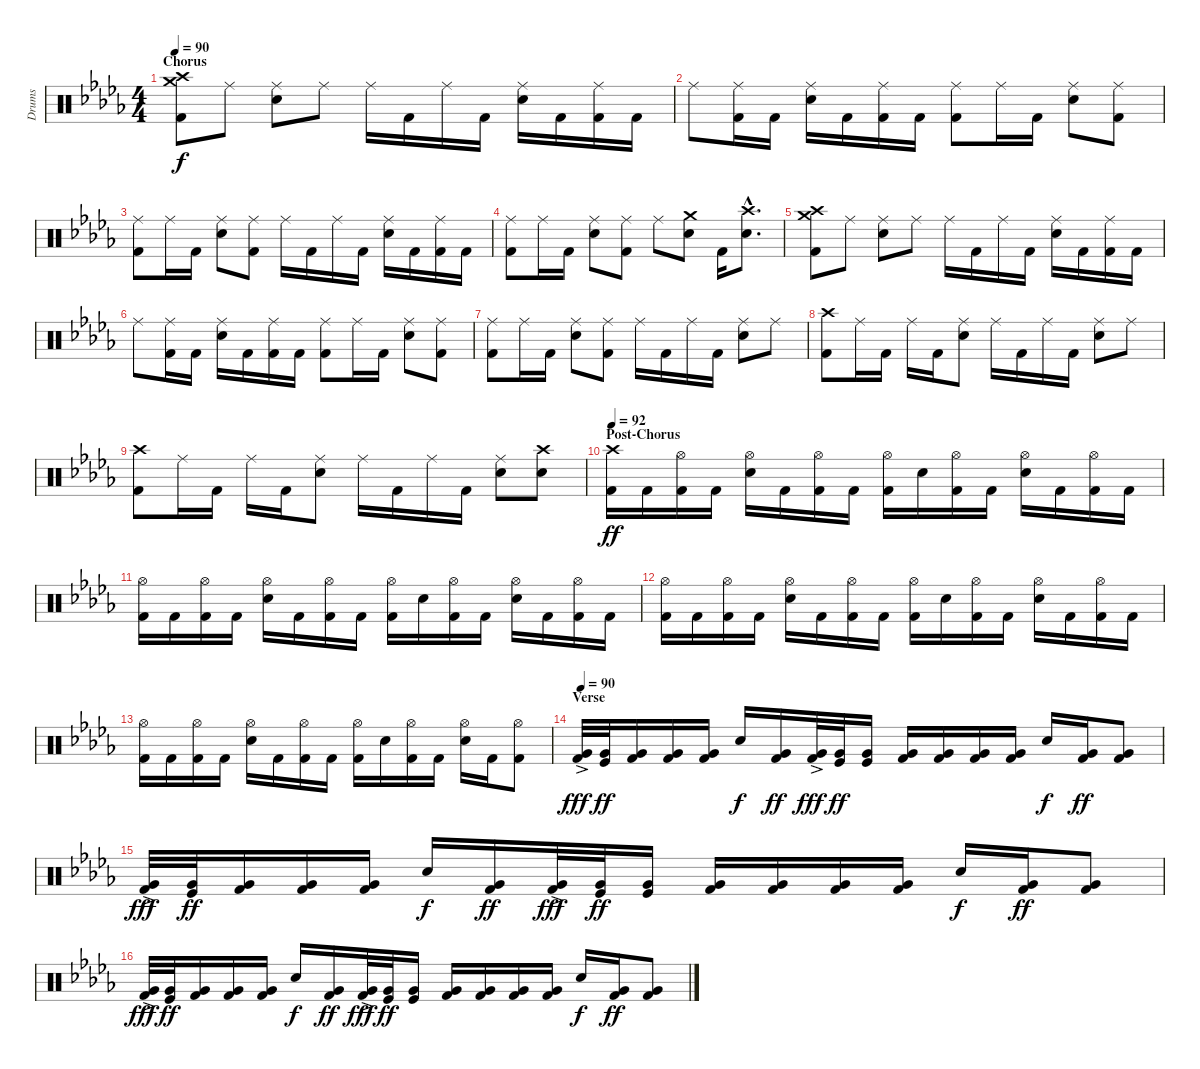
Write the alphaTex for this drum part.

\track ("Drums" "Drums") {instrument percussion}
\staff {score}
\articulation defaults
\ts (4 4)
\section ("" "Chorus")
\tempo 90
\clef neutral
\ks db
("Crash high (hit)" "Crash medium (hit)" "Kick (hit) 2").8{dy f} "Ride (middle)".8 ("Ride (middle)" "Electric Snare (hit)").8 "Ride (middle)".8 "Ride (middle)".16 "Kick (hit) 2".16 "Ride (middle)".16 "Kick (hit) 2".16 ("Ride (middle)" "Electric Snare (hit)").16 "Kick (hit) 2".16 ("Ride (middle)" "Kick (hit) 2").16 "Kick (hit) 2".16 |
"Ride (middle)".8 ("Ride (middle)" "Kick (hit) 2").16 "Kick (hit) 2".16 ("Ride (middle)" "Electric Snare (hit)").16 "Kick (hit) 2".16 ("Ride (middle)" "Kick (hit) 2").16 "Kick (hit) 2".16 ("Ride (middle)" "Kick (hit) 2").8 "Ride (middle)".16 "Kick (hit) 2".16 ("Ride (middle)" "Electric Snare (hit)").8 ("Ride (middle)" "Kick (hit) 2").8 |
("Ride (middle)" "Kick (hit) 2").8 "Ride (middle)".16 "Kick (hit) 2".16 ("Ride (middle)" "Electric Snare (hit)").8 ("Ride (middle)" "Kick (hit) 2").8 "Ride (middle)".16 "Kick (hit) 2".16 "Ride (middle)".16 "Kick (hit) 2".16 ("Ride (middle)" "Electric Snare (hit)").16 "Kick (hit) 2".16 ("Ride (middle)" "Kick (hit) 2").16 "Kick (hit) 2".16 |
("Ride (middle)" "Kick (hit) 2").8 "Ride (middle)".16 "Kick (hit) 2".16 ("Ride (middle)" "Electric Snare (hit)").8 ("Ride (middle)" "Kick (hit) 2").8 "Ride (middle)".8 ("Crash medium (hit)" "Electric Snare (hit)").8 "Kick (hit) 2".16 ("Crash high (hit)"{hac} "Electric Snare (hit)"{hac}).8{d} |
("Crash high (hit)" "Crash medium (hit)" "Kick (hit) 2").8 "Ride (middle)".8 ("Ride (middle)" "Electric Snare (hit)").8 "Ride (middle)".8 "Ride (middle)".16 "Kick (hit) 2".16 "Ride (middle)".16 "Kick (hit) 2".16 ("Ride (middle)" "Electric Snare (hit)").16 "Kick (hit) 2".16 ("Ride (middle)" "Kick (hit) 2").16 "Kick (hit) 2".16 |
"Ride (middle)".8 ("Ride (middle)" "Kick (hit) 2").16 "Kick (hit) 2".16 ("Ride (middle)" "Electric Snare (hit)").16 "Kick (hit) 2".16 ("Ride (middle)" "Kick (hit) 2").16 "Kick (hit) 2".16 ("Ride (middle)" "Kick (hit) 2").8 "Ride (middle)".16 "Kick (hit) 2".16 ("Ride (middle)" "Electric Snare (hit)").8 ("Ride (middle)" "Kick (hit) 2").8 |
("Ride (middle)" "Kick (hit) 2").8 "Ride (middle)".16 "Kick (hit) 2".16 ("Ride (middle)" "Electric Snare (hit)").8 ("Ride (middle)" "Kick (hit) 2").8 "Ride (middle)".16 "Kick (hit) 2".16 "Ride (middle)".16 "Kick (hit) 2".16 ("Ride (middle)" "Electric Snare (hit)").8 "Ride (middle)".8 |
("Crash high (hit)" "Kick (hit) 2").8 "Ride (middle)".16 "Kick (hit) 2".16 "Ride (middle)".16 "Kick (hit) 2".16 ("Ride (middle)" "Electric Snare (hit)").8 "Ride (middle)".16 "Kick (hit) 2".16 "Ride (middle)".16 "Kick (hit) 2".16 ("Ride (middle)" "Electric Snare (hit)").8 "Ride (middle)".8 |
("Crash high (hit)" "Kick (hit) 2").8 "Ride (middle)".16 "Kick (hit) 2".16 "Ride (middle)".16 "Kick (hit) 2".16 ("Ride (middle)" "Electric Snare (hit)").8 "Ride (middle)".16 "Kick (hit) 2".16 "Ride (middle)".16 "Kick (hit) 2".16 ("Ride (middle)" "Electric Snare (hit)").8 ("Crash high (hit)" "Electric Snare (hit)").8 |
\section ("" "Post-Chorus")
\tempo 92
("Crash high (hit)" "Kick (hit) 2").16{dy ff volume 13 balance 8} "Kick (hit) 2".16 ("Hi-Hat (open)" "Kick (hit) 2").16 "Kick (hit) 2".16 ("Hi-Hat (open)" "Electric Snare (hit)").16 "Kick (hit) 2".16 ("Hi-Hat (open)" "Kick (hit) 2").16 "Kick (hit) 2".16 ("Hi-Hat (open)" "Kick (hit) 2").16 "Electric Snare (hit)".16 ("Hi-Hat (open)" "Kick (hit) 2").16 "Kick (hit) 2".16 ("Hi-Hat (open)" "Electric Snare (hit)").16 "Kick (hit) 2".16 ("Hi-Hat (open)" "Kick (hit) 2").16 "Kick (hit) 2".16 |
("Hi-Hat (open)" "Kick (hit) 2").16 "Kick (hit) 2".16 ("Hi-Hat (open)" "Kick (hit) 2").16 "Kick (hit) 2".16 ("Hi-Hat (open)" "Electric Snare (hit)").16 "Kick (hit) 2".16 ("Hi-Hat (open)" "Kick (hit) 2").16 "Kick (hit) 2".16 ("Hi-Hat (open)" "Kick (hit) 2").16 "Electric Snare (hit)".16 ("Hi-Hat (open)" "Kick (hit) 2").16 "Kick (hit) 2".16 ("Hi-Hat (open)" "Electric Snare (hit)").16 "Kick (hit) 2".16 ("Hi-Hat (open)" "Kick (hit) 2").16 "Kick (hit) 2".16 |
("Hi-Hat (open)" "Kick (hit) 2").16 "Kick (hit) 2".16 ("Hi-Hat (open)" "Kick (hit) 2").16 "Kick (hit) 2".16 ("Hi-Hat (open)" "Electric Snare (hit)").16 "Kick (hit) 2".16 ("Hi-Hat (open)" "Kick (hit) 2").16 "Kick (hit) 2".16 ("Hi-Hat (open)" "Kick (hit) 2").16 "Electric Snare (hit)".16 ("Hi-Hat (open)" "Kick (hit) 2").16 "Kick (hit) 2".16 ("Hi-Hat (open)" "Electric Snare (hit)").16 "Kick (hit) 2".16 ("Hi-Hat (open)" "Kick (hit) 2").16 "Kick (hit) 2".16 |
("Hi-Hat (open)" "Kick (hit) 2").16 "Kick (hit) 2".16 ("Hi-Hat (open)" "Kick (hit) 2").16 "Kick (hit) 2".16 ("Hi-Hat (open)" "Electric Snare (hit)").16 "Kick (hit) 2".16 ("Hi-Hat (open)" "Kick (hit) 2").16 "Kick (hit) 2".16 ("Hi-Hat (open)" "Kick (hit) 2").16 "Electric Snare (hit)".16 ("Hi-Hat (open)" "Kick (hit) 2").16 "Kick (hit) 2".16 ("Hi-Hat (open)" "Electric Snare (hit)").16 "Kick (hit) 2".16 ("Hi-Hat (open)" "Kick (hit) 2").8 |
\section ("" "Verse")
\tempo 90
("Very Low Tom (hit)"{ac} "Kick (hit) 2"{ac}).32{dy fff} ("Very Low Tom (hit)" "Kick (hit)").32{dy ff} ("Very Low Tom (hit)" "Kick (hit) 2").16 ("Very Low Tom (hit)" "Kick (hit) 2").16 ("Very Low Tom (hit)" "Kick (hit) 2").16 "Electric Snare (hit)".16{dy f} ("Very Low Tom (hit)" "Kick (hit) 2").16{dy ff} ("Very Low Tom (hit)"{ac} "Kick (hit) 2"{ac}).32{dy fff} ("Very Low Tom (hit)" "Kick (hit)").32{dy ff} ("Very Low Tom (hit)" "Kick (hit)").16 ("Very Low Tom (hit)" "Kick (hit) 2").16 ("Very Low Tom (hit)" "Kick (hit) 2").16 ("Very Low Tom (hit)" "Kick (hit) 2").16 ("Very Low Tom (hit)" "Kick (hit) 2").16 "Electric Snare (hit)".16{dy f} ("Very Low Tom (hit)" "Kick (hit) 2").16{dy ff} ("Very Low Tom (hit)" "Kick (hit) 2").8 |
("Very Low Tom (hit)"{ac} "Kick (hit) 2"{ac}).32{dy fff} ("Very Low Tom (hit)" "Kick (hit)").32{dy ff} ("Very Low Tom (hit)" "Kick (hit) 2").16 ("Very Low Tom (hit)" "Kick (hit) 2").16 ("Very Low Tom (hit)" "Kick (hit) 2").16 "Electric Snare (hit)".16{dy f} ("Very Low Tom (hit)" "Kick (hit) 2").16{dy ff} ("Very Low Tom (hit)"{ac} "Kick (hit) 2"{ac}).32{dy fff} ("Very Low Tom (hit)" "Kick (hit)").32{dy ff} ("Very Low Tom (hit)" "Kick (hit)").16 ("Very Low Tom (hit)" "Kick (hit) 2").16 ("Very Low Tom (hit)" "Kick (hit) 2").16 ("Very Low Tom (hit)" "Kick (hit) 2").16 ("Very Low Tom (hit)" "Kick (hit) 2").16 "Electric Snare (hit)".16{dy f} ("Very Low Tom (hit)" "Kick (hit) 2").16{dy ff} ("Very Low Tom (hit)" "Kick (hit) 2").8 |
("Very Low Tom (hit)"{ac} "Kick (hit) 2"{ac}).32{dy fff} ("Very Low Tom (hit)" "Kick (hit)").32{dy ff} ("Very Low Tom (hit)" "Kick (hit) 2").16 ("Very Low Tom (hit)" "Kick (hit) 2").16 ("Very Low Tom (hit)" "Kick (hit) 2").16 "Electric Snare (hit)".16{dy f} ("Very Low Tom (hit)" "Kick (hit) 2").16{dy ff} ("Very Low Tom (hit)"{ac} "Kick (hit) 2"{ac}).32{dy fff} ("Very Low Tom (hit)" "Kick (hit)").32{dy ff} ("Very Low Tom (hit)" "Kick (hit)").16 ("Very Low Tom (hit)" "Kick (hit) 2").16 ("Very Low Tom (hit)" "Kick (hit) 2").16 ("Very Low Tom (hit)" "Kick (hit) 2").16 ("Very Low Tom (hit)" "Kick (hit) 2").16 "Electric Snare (hit)".16{dy f} ("Very Low Tom (hit)" "Kick (hit) 2").16{dy ff} ("Very Low Tom (hit)" "Kick (hit) 2").8
